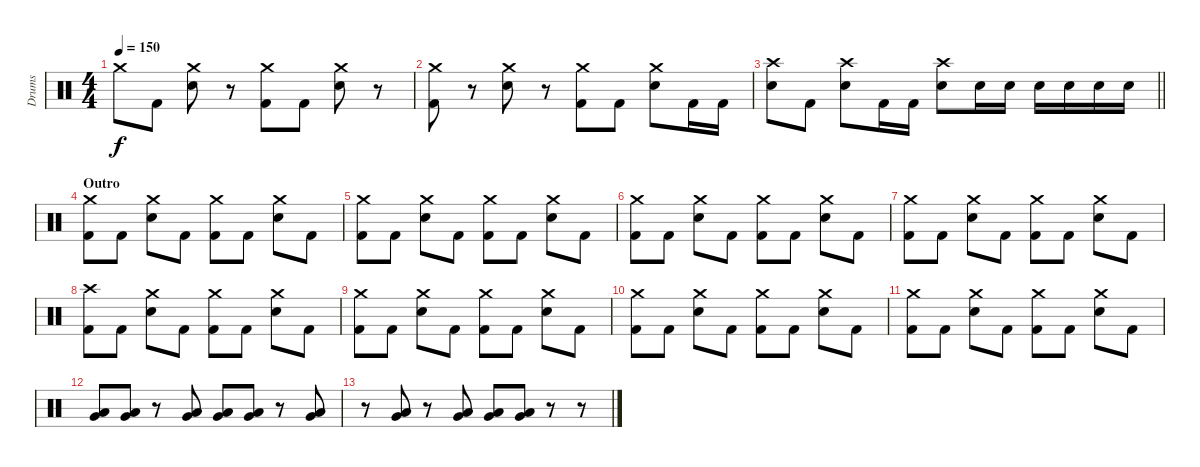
\track ("Drums" "Drums") {instrument percussion}
\staff {score}
\articulation defaults
\ts (4 4)
\tempo 150
\clef neutral
\ks c "Crash medium (hit)".8{dy f} "Kick (hit) 2".8
("Crash medium (hit)" "Electric Snare (hit)").8 r.8 ("Crash medium (hit)" "Kick (hit) 2").8 "Kick (hit) 2".8 ("Crash medium (hit)" "Electric Snare (hit)").8 r.8 |
("Crash medium (hit)" "Kick (hit) 2").8 r.8 ("Crash medium (hit)" "Electric Snare (hit)").8 r.8 ("Crash medium (hit)" "Kick (hit) 2").8 "Kick (hit) 2".8 ("Crash medium (hit)" "Electric Snare (hit)").8 "Kick (hit) 2".16 "Kick (hit) 2".16 |
\barLineRight lightlight
("Crash high (hit)" "Electric Snare (hit)").8 "Kick (hit) 2".8 ("Crash high (hit)" "Electric Snare (hit)").8 "Kick (hit) 2".16 "Kick (hit) 2".16 ("Crash high (hit)" "Electric Snare (hit)").8 "Electric Snare (hit)".16 "Electric Snare (hit)".16 "Electric Snare (hit)".16 "Electric Snare (hit)".16 "Electric Snare (hit)".16 "Electric Snare (hit)".16 |
\section ("" "Outro")
("Crash medium (hit)" "Kick (hit) 2").8 "Kick (hit) 2".8 ("Crash medium (hit)" "Electric Snare (hit)").8 "Kick (hit) 2".8 ("Crash medium (hit)" "Kick (hit) 2").8 "Kick (hit) 2".8 ("Crash medium (hit)" "Electric Snare (hit)").8 "Kick (hit) 2".8 |
("Crash medium (hit)" "Kick (hit) 2").8 "Kick (hit) 2".8 ("Crash medium (hit)" "Electric Snare (hit)").8 "Kick (hit) 2".8 ("Crash medium (hit)" "Kick (hit) 2").8 "Kick (hit) 2".8 ("Crash medium (hit)" "Electric Snare (hit)").8 "Kick (hit) 2".8 |
("Crash medium (hit)" "Kick (hit) 2").8 "Kick (hit) 2".8 ("Crash medium (hit)" "Electric Snare (hit)").8 "Kick (hit) 2".8 ("Crash medium (hit)" "Kick (hit) 2").8 "Kick (hit) 2".8 ("Crash medium (hit)" "Electric Snare (hit)").8 "Kick (hit) 2".8 |
("Crash medium (hit)" "Kick (hit) 2").8 "Kick (hit) 2".8 ("Crash medium (hit)" "Electric Snare (hit)").8 "Kick (hit) 2".8 ("Crash medium (hit)" "Kick (hit) 2").8 "Kick (hit) 2".8 ("Crash medium (hit)" "Electric Snare (hit)").8 "Kick (hit) 2".8 |
("Crash high (hit)" "Kick (hit) 2").8 "Kick (hit) 2".8 ("Crash medium (hit)" "Electric Snare (hit)").8 "Kick (hit) 2".8 ("Crash medium (hit)" "Kick (hit) 2").8 "Kick (hit) 2".8 ("Crash medium (hit)" "Electric Snare (hit)").8 "Kick (hit) 2".8 |
("Crash medium (hit)" "Kick (hit) 2").8 "Kick (hit) 2".8 ("Crash medium (hit)" "Electric Snare (hit)").8 "Kick (hit) 2".8 ("Crash medium (hit)" "Kick (hit) 2").8 "Kick (hit) 2".8 ("Crash medium (hit)" "Electric Snare (hit)").8 "Kick (hit) 2".8 |
("Crash medium (hit)" "Kick (hit) 2").8 "Kick (hit) 2".8 ("Crash medium (hit)" "Electric Snare (hit)").8 "Kick (hit) 2".8 ("Crash medium (hit)" "Kick (hit) 2").8 "Kick (hit) 2".8 ("Crash medium (hit)" "Electric Snare (hit)").8 "Kick (hit) 2".8 |
("Crash medium (hit)" "Kick (hit) 2").8 "Kick (hit) 2".8 ("Crash medium (hit)" "Electric Snare (hit)").8 "Kick (hit) 2".8 ("Crash medium (hit)" "Kick (hit) 2").8 "Kick (hit) 2".8 ("Crash medium (hit)" "Electric Snare (hit)").8 "Kick (hit) 2".8 |
("Very Low Tom (hit)" "Low Floor Tom (hit)").8 ("Very Low Tom (hit)" "Low Floor Tom (hit)").8 r.8 ("Very Low Tom (hit)" "Low Floor Tom (hit)").8 ("Very Low Tom (hit)" "Low Floor Tom (hit)").8 ("Very Low Tom (hit)" "Low Floor Tom (hit)").8 r.8 ("Very Low Tom (hit)" "Low Floor Tom (hit)").8 |
r.8 ("Very Low Tom (hit)" "Low Floor Tom (hit)").8 r.8 ("Very Low Tom (hit)" "Low Floor Tom (hit)").8 ("Very Low Tom (hit)" "Low Floor Tom (hit)").8 ("Very Low Tom (hit)" "Low Floor Tom (hit)").8 r.8 r.8
